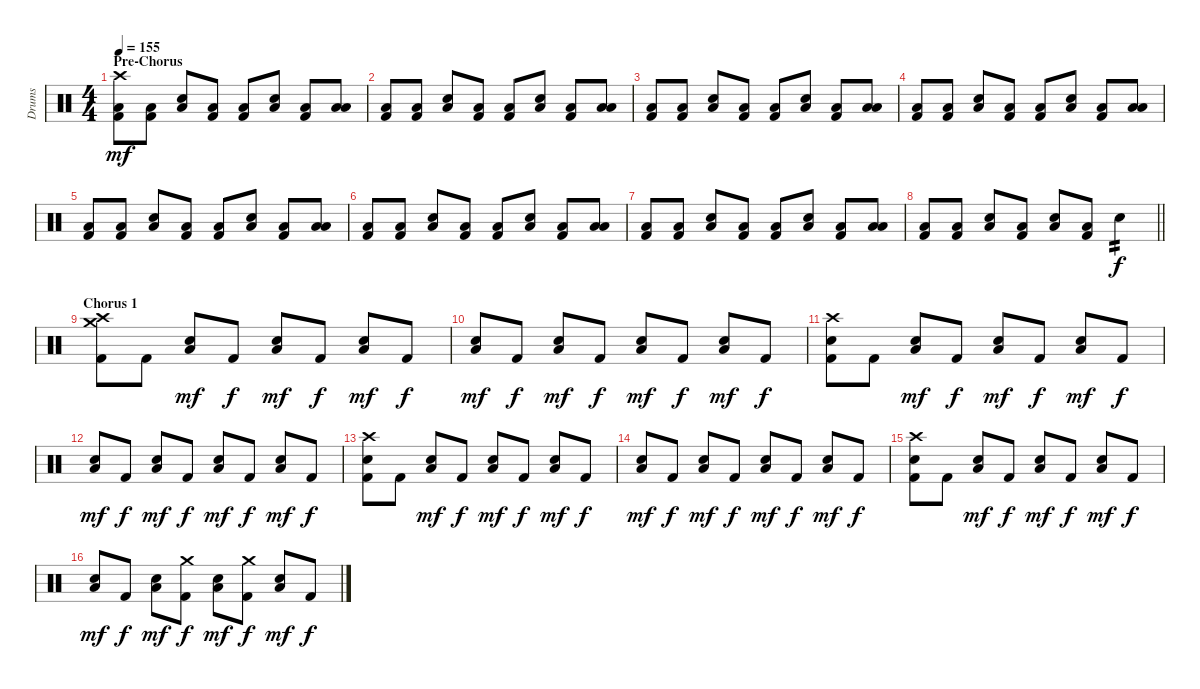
\track ("Drums" "Drums") {instrument percussion}
\staff {score}
\articulation defaults
\ts (4 4)
\section ("" "Pre-Chorus")
\tempo 155
\clef neutral
\ks c
("Crash high (hit)" "Low Floor Tom (hit)" "Kick (hit) 2").8{dy mf} ("Low Floor Tom (hit)" "Kick (hit) 2").8 ("Snare (hit) 2" "Low Floor Tom (hit)").8 ("Low Floor Tom (hit)" "Kick (hit) 2").8 ("Low Floor Tom (hit)" "Kick (hit) 2").8 ("Snare (hit) 2" "Low Floor Tom (hit)").8 ("Low Floor Tom (hit)" "Kick (hit) 2").8 ("Low Tom (hit)" "Low Floor Tom (hit)").8 |
("Low Floor Tom (hit)" "Kick (hit) 2").8 ("Low Floor Tom (hit)" "Kick (hit) 2").8 ("Snare (hit) 2" "Low Floor Tom (hit)").8 ("Low Floor Tom (hit)" "Kick (hit) 2").8 ("Low Floor Tom (hit)" "Kick (hit) 2").8 ("Snare (hit) 2" "Low Floor Tom (hit)").8 ("Low Floor Tom (hit)" "Kick (hit) 2").8 ("Low Tom (hit)" "Low Floor Tom (hit)").8 |
("Low Floor Tom (hit)" "Kick (hit) 2").8 ("Low Floor Tom (hit)" "Kick (hit) 2").8 ("Snare (hit) 2" "Low Floor Tom (hit)").8 ("Low Floor Tom (hit)" "Kick (hit) 2").8 ("Low Floor Tom (hit)" "Kick (hit) 2").8 ("Snare (hit) 2" "Low Floor Tom (hit)").8 ("Low Floor Tom (hit)" "Kick (hit) 2").8 ("Low Tom (hit)" "Low Floor Tom (hit)").8 |
("Low Floor Tom (hit)" "Kick (hit) 2").8 ("Low Floor Tom (hit)" "Kick (hit) 2").8 ("Snare (hit) 2" "Low Floor Tom (hit)").8 ("Low Floor Tom (hit)" "Kick (hit) 2").8 ("Low Floor Tom (hit)" "Kick (hit) 2").8 ("Snare (hit) 2" "Low Floor Tom (hit)").8 ("Low Floor Tom (hit)" "Kick (hit) 2").8 ("Low Tom (hit)" "Low Floor Tom (hit)").8 |
("Low Floor Tom (hit)" "Kick (hit) 2").8 ("Low Floor Tom (hit)" "Kick (hit) 2").8 ("Snare (hit) 2" "Low Floor Tom (hit)").8 ("Low Floor Tom (hit)" "Kick (hit) 2").8 ("Low Floor Tom (hit)" "Kick (hit) 2").8 ("Snare (hit) 2" "Low Floor Tom (hit)").8 ("Low Floor Tom (hit)" "Kick (hit) 2").8 ("Low Tom (hit)" "Low Floor Tom (hit)").8 |
("Low Floor Tom (hit)" "Kick (hit) 2").8 ("Low Floor Tom (hit)" "Kick (hit) 2").8 ("Snare (hit) 2" "Low Floor Tom (hit)").8 ("Low Floor Tom (hit)" "Kick (hit) 2").8 ("Low Floor Tom (hit)" "Kick (hit) 2").8 ("Snare (hit) 2" "Low Floor Tom (hit)").8 ("Low Floor Tom (hit)" "Kick (hit) 2").8 ("Low Tom (hit)" "Low Floor Tom (hit)").8 |
("Low Floor Tom (hit)" "Kick (hit) 2").8 ("Low Floor Tom (hit)" "Kick (hit) 2").8 ("Snare (hit) 2" "Low Floor Tom (hit)").8 ("Low Floor Tom (hit)" "Kick (hit) 2").8 ("Low Floor Tom (hit)" "Kick (hit) 2").8 ("Snare (hit) 2" "Low Floor Tom (hit)").8 ("Low Floor Tom (hit)" "Kick (hit) 2").8 ("Low Tom (hit)" "Low Floor Tom (hit)").8 |
\barLineRight lightlight
("Low Floor Tom (hit)" "Kick (hit) 2").8 ("Low Floor Tom (hit)" "Kick (hit) 2").8 ("Snare (hit) 2" "Low Floor Tom (hit)").8 ("Low Floor Tom (hit)" "Kick (hit) 2").8 ("Snare (hit) 2" "Low Floor Tom (hit)").8 ("Low Floor Tom (hit)" "Kick (hit) 2").8 "Snare (hit) 2".4{tp 2 dy f} |
\section ("" "Chorus 1")
("Crash high (hit)" "Crash medium (hit)" "Kick (hit) 2").8 "Kick (hit) 2".8 ("Snare (hit) 2" "Low Floor Tom (hit)").8{dy mf} "Kick (hit) 2".8{dy f} ("Snare (hit) 2" "Low Floor Tom (hit)").8{dy mf} "Kick (hit) 2".8{dy f} ("Snare (hit) 2" "Low Floor Tom (hit)").8{dy mf} "Kick (hit) 2".8{dy f} |
("Snare (hit) 2" "Low Floor Tom (hit)").8{dy mf} "Kick (hit) 2".8{dy f} ("Snare (hit) 2" "Low Floor Tom (hit)").8{dy mf} "Kick (hit) 2".8{dy f} ("Snare (hit) 2" "Low Floor Tom (hit)").8{dy mf} "Kick (hit) 2".8{dy f} ("Snare (hit) 2" "Low Floor Tom (hit)").8{dy mf} "Kick (hit) 2".8{dy f} |
("Crash high (hit)" "Snare (hit) 2" "Kick (hit) 2").8 "Kick (hit) 2".8 ("Snare (hit) 2" "Low Floor Tom (hit)").8{dy mf} "Kick (hit) 2".8{dy f} ("Snare (hit) 2" "Low Floor Tom (hit)").8{dy mf} "Kick (hit) 2".8{dy f} ("Snare (hit) 2" "Low Floor Tom (hit)").8{dy mf} "Kick (hit) 2".8{dy f} |
("Snare (hit) 2" "Low Floor Tom (hit)").8{dy mf} "Kick (hit) 2".8{dy f} ("Snare (hit) 2" "Low Floor Tom (hit)").8{dy mf} "Kick (hit) 2".8{dy f} ("Snare (hit) 2" "Low Floor Tom (hit)").8{dy mf} "Kick (hit) 2".8{dy f} ("Snare (hit) 2" "Low Floor Tom (hit)").8{dy mf} "Kick (hit) 2".8{dy f} |
("Crash high (hit)" "Snare (hit) 2" "Kick (hit) 2").8 "Kick (hit) 2".8 ("Snare (hit) 2" "Low Floor Tom (hit)").8{dy mf} "Kick (hit) 2".8{dy f} ("Snare (hit) 2" "Low Floor Tom (hit)").8{dy mf} "Kick (hit) 2".8{dy f} ("Snare (hit) 2" "Low Floor Tom (hit)").8{dy mf} "Kick (hit) 2".8{dy f} |
("Snare (hit) 2" "Low Floor Tom (hit)").8{dy mf} "Kick (hit) 2".8{dy f} ("Snare (hit) 2" "Low Floor Tom (hit)").8{dy mf} "Kick (hit) 2".8{dy f} ("Snare (hit) 2" "Low Floor Tom (hit)").8{dy mf} "Kick (hit) 2".8{dy f} ("Snare (hit) 2" "Low Floor Tom (hit)").8{dy mf} "Kick (hit) 2".8{dy f} |
("Crash high (hit)" "Snare (hit) 2" "Kick (hit) 2").8 "Kick (hit) 2".8 ("Snare (hit) 2" "Low Floor Tom (hit)").8{dy mf} "Kick (hit) 2".8{dy f} ("Snare (hit) 2" "Low Floor Tom (hit)").8{dy mf} "Kick (hit) 2".8{dy f} ("Snare (hit) 2" "Low Floor Tom (hit)").8{dy mf} "Kick (hit) 2".8{dy f} |
("Snare (hit) 2" "Low Floor Tom (hit)").8{dy mf} "Kick (hit) 2".8{dy f} ("Snare (hit) 2" "Low Floor Tom (hit)").8{dy mf} ("Crash medium (hit)" "Kick (hit) 2").8{dy f} ("Snare (hit) 2" "Low Floor Tom (hit)").8{dy mf} ("Crash medium (hit)" "Kick (hit) 2").8{dy f} ("Snare (hit) 2" "Low Floor Tom (hit)").8{dy mf} "Kick (hit) 2".8{dy f}
